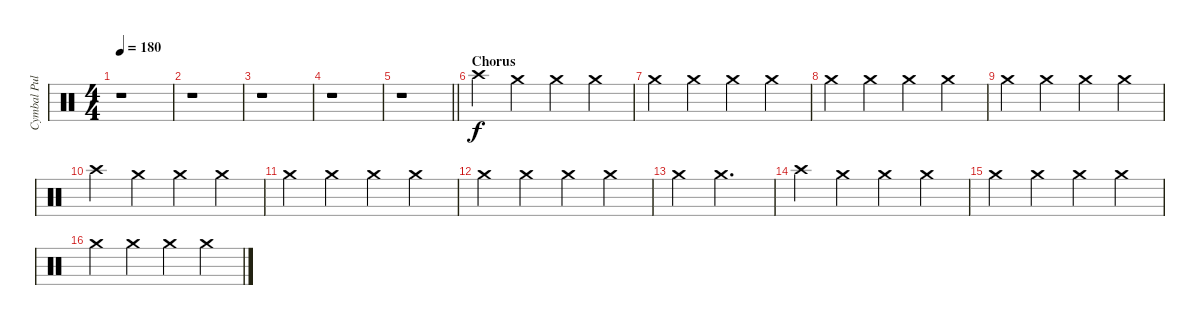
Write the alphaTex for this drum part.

\track ("Cymbal Pulse" "Cymbal Pul") {instrument percussion}
\staff {score}
\articulation defaults
\ts (4 4)
\tempo 180
\clef neutral
\ks c
r.1{dy f} |
r.1 |
r.1 |
r.1 |
\barLineRight lightlight
r.1 |
\section ("" "Chorus")
"Crash high (hit)".4 "Crash medium (hit)".4 "Crash medium (hit)".4 "Crash medium (hit)".4 |
"Crash medium (hit)".4 "Crash medium (hit)".4 "Crash medium (hit)".4 "Crash medium (hit)".4 |
"Crash medium (hit)".4 "Crash medium (hit)".4 "Crash medium (hit)".4 "Crash medium (hit)".4 |
"Crash medium (hit)".4 "Crash medium (hit)".4 "Crash medium (hit)".4 "Crash medium (hit)".4 |
"Crash high (hit)".4 "Crash medium (hit)".4 "Crash medium (hit)".4 "Crash medium (hit)".4 |
"Crash medium (hit)".4 "Crash medium (hit)".4 "Crash medium (hit)".4 "Crash medium (hit)".4 |
"Crash medium (hit)".4 "Crash medium (hit)".4 "Crash medium (hit)".4 "Crash medium (hit)".4 |
"Crash medium (hit)".4 "Crash medium (hit)".2{d} |
"Crash high (hit)".4 "Crash medium (hit)".4 "Crash medium (hit)".4 "Crash medium (hit)".4 |
"Crash medium (hit)".4 "Crash medium (hit)".4 "Crash medium (hit)".4 "Crash medium (hit)".4 |
"Crash medium (hit)".4 "Crash medium (hit)".4 "Crash medium (hit)".4 "Crash medium (hit)".4
